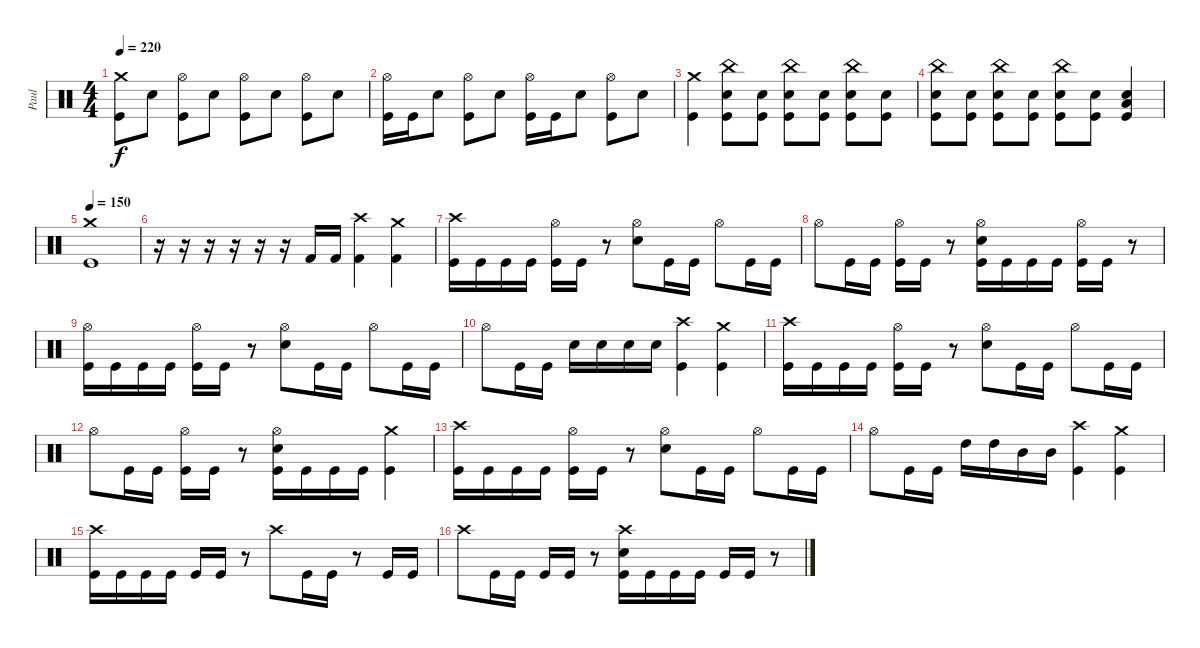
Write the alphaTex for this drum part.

\track ("Paul" "Paul") {instrument percussion}
\staff {score}
\articulation defaults
\ts (4 4)
\tempo 220
\clef neutral
\ks c
("Crash medium (hit)" "Kick (hit)").8{dy f} "Electric Snare (hit)".8 ("Hi-Hat (open)" "Kick (hit)").8 "Electric Snare (hit)".8 ("Hi-Hat (open)" "Kick (hit)").8 "Electric Snare (hit)".8 ("Hi-Hat (open)" "Kick (hit)").8 "Electric Snare (hit)".8 |
("Hi-Hat (open)" "Kick (hit)").16 "Kick (hit)".16 "Electric Snare (hit)".8 ("Hi-Hat (open)" "Kick (hit)").8 "Electric Snare (hit)".8 ("Hi-Hat (open)" "Kick (hit)").16 "Kick (hit)".16 "Electric Snare (hit)".8 ("Hi-Hat (open)" "Kick (hit)").8 "Electric Snare (hit)".8 |
("Crash medium (hit)" "Kick (hit)").4 ("China (hit)" "Electric Snare (hit)" "Kick (hit)").8 ("Electric Snare (hit)" "Kick (hit)").8 ("China (hit)" "Electric Snare (hit)" "Kick (hit)").8 ("Electric Snare (hit)" "Kick (hit)").8 ("China (hit)" "Electric Snare (hit)" "Kick (hit)").8 ("Electric Snare (hit)" "Kick (hit)").8 |
("China (hit)" "Electric Snare (hit)" "Kick (hit)").8 ("Electric Snare (hit)" "Kick (hit)").8 ("China (hit)" "Electric Snare (hit)" "Kick (hit)").8 ("Electric Snare (hit)" "Kick (hit)").8 ("China (hit)" "Electric Snare (hit)" "Kick (hit)").8 ("Electric Snare (hit)" "Kick (hit)").8 ("Electric Snare (hit)" "Low Floor Tom (hit)" "Kick (hit)").4 |
\tempo 150
("Crash medium (hit)" "Kick (hit)").1 |
r.16 r.16 r.16 r.16 r.16 r.16 "Kick (hit) 2".16 "Kick (hit) 2".16 ("Crash high (hit)" "Kick (hit) 2").4 ("Crash medium (hit)" "Kick (hit) 2").4 |
("Crash high (hit)" "Kick (hit)").16 "Kick (hit)".16 "Kick (hit)".16 "Kick (hit)".16 ("Hi-Hat (open)" "Kick (hit)").16 "Kick (hit)".16 r.8 ("Hi-Hat (open)" "Electric Snare (hit)").8 "Kick (hit)".16 "Kick (hit)".16 "Hi-Hat (open)".8 "Kick (hit)".16 "Kick (hit)".16 |
"Hi-Hat (open)".8 "Kick (hit)".16 "Kick (hit)".16 ("Hi-Hat (open)" "Kick (hit)").16 "Kick (hit)".16 r.8 ("Hi-Hat (open)" "Electric Snare (hit)" "Kick (hit)").16 "Kick (hit)".16 "Kick (hit)".16 "Kick (hit)".16 ("Hi-Hat (open)" "Kick (hit)").16 "Kick (hit)".16 r.8 |
("Hi-Hat (open)" "Kick (hit)").16 "Kick (hit)".16 "Kick (hit)".16 "Kick (hit)".16 ("Hi-Hat (open)" "Kick (hit)").16 "Kick (hit)".16 r.8 ("Hi-Hat (open)" "Electric Snare (hit)").8 "Kick (hit)".16 "Kick (hit)".16 "Hi-Hat (open)".8 "Kick (hit)".16 "Kick (hit)".16 |
"Hi-Hat (open)".8 "Kick (hit)".16 "Kick (hit)".16 "Electric Snare (hit)".16 "Electric Snare (hit)".16 "Electric Snare (hit)".16 "Electric Snare (hit)".16 ("Crash high (hit)" "Kick (hit)").4 ("Crash medium (hit)" "Kick (hit)").4 |
("Crash high (hit)" "Kick (hit)").16 "Kick (hit)".16 "Kick (hit)".16 "Kick (hit)".16 ("Hi-Hat (open)" "Kick (hit)").16 "Kick (hit)".16 r.8 ("Hi-Hat (open)" "Electric Snare (hit)").8 "Kick (hit)".16 "Kick (hit)".16 "Hi-Hat (open)".8 "Kick (hit)".16 "Kick (hit)".16 |
"Hi-Hat (open)".8 "Kick (hit)".16 "Kick (hit)".16 ("Hi-Hat (open)" "Kick (hit)").16 "Kick (hit)".16 r.8 ("Hi-Hat (open)" "Electric Snare (hit)" "Kick (hit)").16 "Kick (hit)".16 "Kick (hit)".16 "Kick (hit)".16 ("Crash medium (hit)" "Kick (hit)").4 |
("Crash high (hit)" "Kick (hit)").16 "Kick (hit)".16 "Kick (hit)".16 "Kick (hit)".16 ("Hi-Hat (open)" "Kick (hit)").16 "Kick (hit)".16 r.8 ("Hi-Hat (open)" "Electric Snare (hit)").8 "Kick (hit)".16 "Kick (hit)".16 "Hi-Hat (open)".8 "Kick (hit)".16 "Kick (hit)".16 |
"Hi-Hat (open)".8 "Kick (hit)".16 "Kick (hit)".16 "High Tom (hit)".16 "High Tom (hit)".16 "Mid Tom (hit)".16 "Mid Tom (hit)".16 ("Crash high (hit)" "Kick (hit)").4 ("Crash medium (hit)" "Kick (hit)").4 |
("Crash high (hit)" "Kick (hit)").16 "Kick (hit)".16 "Kick (hit)".16 "Kick (hit)".16 "Kick (hit)".16 "Kick (hit)".16 r.8 "Crash high (hit)".8 "Kick (hit)".16 "Kick (hit)".16 r.8 "Kick (hit)".16 "Kick (hit)".16 |
"Crash high (hit)".8 "Kick (hit)".16 "Kick (hit)".16 "Kick (hit)".16 "Kick (hit)".16 r.8 ("Crash high (hit)" "Electric Snare (hit)" "Kick (hit)").16 "Kick (hit)".16 "Kick (hit)".16 "Kick (hit)".16 "Kick (hit)".16 "Kick (hit)".16 r.8
